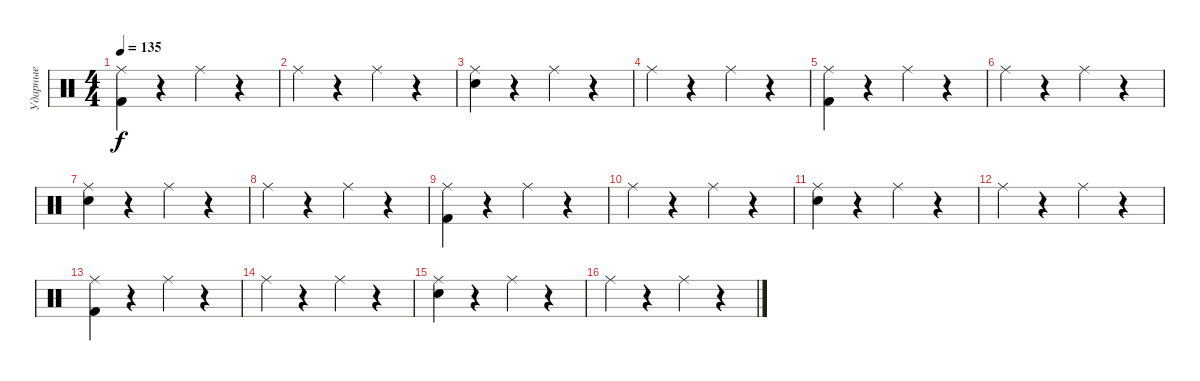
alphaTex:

\track ("Ударные" "Ударные") {instrument percussion}
\staff {score}
\articulation defaults
\ts (4 4)
\tempo 135
\clef neutral
\ks c
("Ride (middle)" "Kick (hit) 2").4{dy f} r.4 "Ride (middle)".4 r.4 |
"Ride (middle)".4 r.4 "Ride (middle)".4 r.4 |
("Ride (middle)" "Electric Snare (hit)").4 r.4 "Ride (middle)".4 r.4 |
"Ride (middle)".4 r.4 "Ride (middle)".4 r.4 |
("Ride (middle)" "Kick (hit) 2").4 r.4 "Ride (middle)".4 r.4 |
"Ride (middle)".4 r.4 "Ride (middle)".4 r.4 |
("Ride (middle)" "Electric Snare (hit)").4 r.4 "Ride (middle)".4 r.4 |
"Ride (middle)".4 r.4 "Ride (middle)".4 r.4 |
("Ride (middle)" "Kick (hit) 2").4 r.4 "Ride (middle)".4 r.4 |
"Ride (middle)".4 r.4 "Ride (middle)".4 r.4 |
("Ride (middle)" "Electric Snare (hit)").4 r.4 "Ride (middle)".4 r.4 |
"Ride (middle)".4 r.4 "Ride (middle)".4 r.4 |
("Ride (middle)" "Kick (hit) 2").4 r.4 "Ride (middle)".4 r.4 |
"Ride (middle)".4 r.4 "Ride (middle)".4 r.4 |
("Ride (middle)" "Electric Snare (hit)").4 r.4 "Ride (middle)".4 r.4 |
"Ride (middle)".4 r.4 "Ride (middle)".4 r.4
